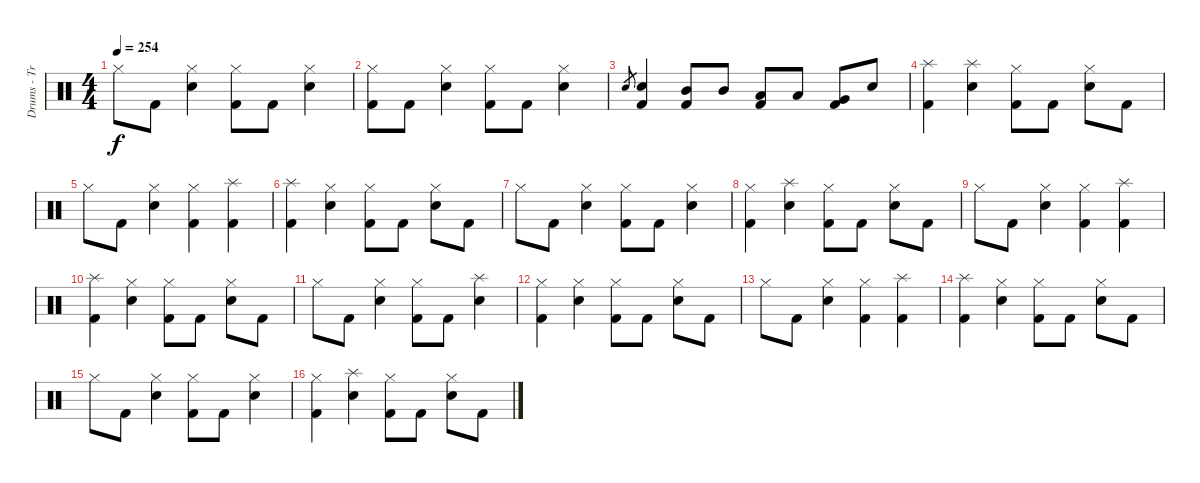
\track ("Drums - Travis Barker" "Drums - Tr") {instrument percussion}
\staff {score}
\articulation defaults
\ts (4 4)
\tempo 254
\clef neutral
\ks c "Hi-Hat (closed)".8{dy f} "Kick (hit) 2".8
("Hi-Hat (closed)" "Electric Snare (hit)").4 ("Hi-Hat (closed)" "Kick (hit) 2").8 "Kick (hit) 2".8 ("Hi-Hat (closed)" "Electric Snare (hit)").4 |
("Hi-Hat (closed)" "Kick (hit) 2").8 "Kick (hit) 2".8 ("Hi-Hat (closed)" "Electric Snare (hit)").4 ("Hi-Hat (closed)" "Kick (hit) 2").8 "Kick (hit) 2".8 ("Hi-Hat (closed)" "Electric Snare (hit)").4 |
"Electric Snare (hit)".8{gr} ("Electric Snare (hit)" "Kick (hit) 2").4 ("Mid Tom (hit)" "Kick (hit) 2").8 "Mid Tom (hit)".8 ("Low Tom (hit)" "Kick (hit) 2").8 "Low Tom (hit)".8 ("Very Low Tom (hit)" "Kick (hit) 2").8 "Electric Snare (hit)".8 |
("Splash (hit)" "Kick (hit) 2").4 ("Splash (hit)" "Electric Snare (hit)").4 ("Hi-Hat (closed)" "Kick (hit) 2").8 "Kick (hit) 2".8 ("Hi-Hat (closed)" "Electric Snare (hit)").8 "Kick (hit) 2".8 |
"Hi-Hat (closed)".8 "Kick (hit) 2".8 ("Hi-Hat (closed)" "Electric Snare (hit)").4 ("Hi-Hat (closed)" "Kick (hit) 2").4 ("Splash (hit)" "Kick (hit) 2").4 |
("Splash (hit)" "Kick (hit) 2").4 ("Hi-Hat (closed)" "Electric Snare (hit)").4 ("Hi-Hat (closed)" "Kick (hit) 2").8 "Kick (hit) 2".8 ("Hi-Hat (closed)" "Electric Snare (hit)").8 "Kick (hit) 2".8 |
"Hi-Hat (closed)".8 "Kick (hit) 2".8 ("Hi-Hat (closed)" "Electric Snare (hit)").4 ("Hi-Hat (closed)" "Kick (hit) 2").8 "Kick (hit) 2".8 ("Hi-Hat (closed)" "Electric Snare (hit)").4 |
("Hi-Hat (closed)" "Kick (hit) 2").4 ("Splash (hit)" "Electric Snare (hit)").4 ("Hi-Hat (closed)" "Kick (hit) 2").8 "Kick (hit) 2".8 ("Hi-Hat (closed)" "Electric Snare (hit)").8 "Kick (hit) 2".8 |
"Hi-Hat (closed)".8 "Kick (hit) 2".8 ("Hi-Hat (closed)" "Electric Snare (hit)").4 ("Hi-Hat (closed)" "Kick (hit) 2").4 ("Splash (hit)" "Kick (hit) 2").4 |
("Splash (hit)" "Kick (hit) 2").4 ("Hi-Hat (closed)" "Electric Snare (hit)").4 ("Hi-Hat (closed)" "Kick (hit) 2").8 "Kick (hit) 2".8 ("Hi-Hat (closed)" "Electric Snare (hit)").8 "Kick (hit) 2".8 |
"Hi-Hat (closed)".8 "Kick (hit) 2".8 ("Hi-Hat (closed)" "Electric Snare (hit)").4 ("Hi-Hat (closed)" "Kick (hit) 2").8 "Kick (hit) 2".8 ("Splash (hit)" "Electric Snare (hit)").4 |
("Hi-Hat (closed)" "Kick (hit) 2").4 ("Hi-Hat (closed)" "Electric Snare (hit)").4 ("Hi-Hat (closed)" "Kick (hit) 2").8 "Kick (hit) 2".8 ("Hi-Hat (closed)" "Electric Snare (hit)").8 "Kick (hit) 2".8 |
"Hi-Hat (closed)".8 "Kick (hit) 2".8 ("Hi-Hat (closed)" "Electric Snare (hit)").4 ("Hi-Hat (closed)" "Kick (hit) 2").4 ("Splash (hit)" "Kick (hit) 2").4 |
("Splash (hit)" "Kick (hit) 2").4 ("Hi-Hat (closed)" "Electric Snare (hit)").4 ("Hi-Hat (closed)" "Kick (hit) 2").8 "Kick (hit) 2".8 ("Hi-Hat (closed)" "Electric Snare (hit)").8 "Kick (hit) 2".8 |
"Hi-Hat (closed)".8 "Kick (hit) 2".8 ("Hi-Hat (closed)" "Electric Snare (hit)").4 ("Hi-Hat (closed)" "Kick (hit) 2").8 "Kick (hit) 2".8 ("Hi-Hat (closed)" "Electric Snare (hit)").4 |
("Hi-Hat (closed)" "Kick (hit) 2").4 ("Splash (hit)" "Electric Snare (hit)").4 ("Hi-Hat (closed)" "Kick (hit) 2").8 "Kick (hit) 2".8 ("Hi-Hat (closed)" "Electric Snare (hit)").8 "Kick (hit) 2".8
